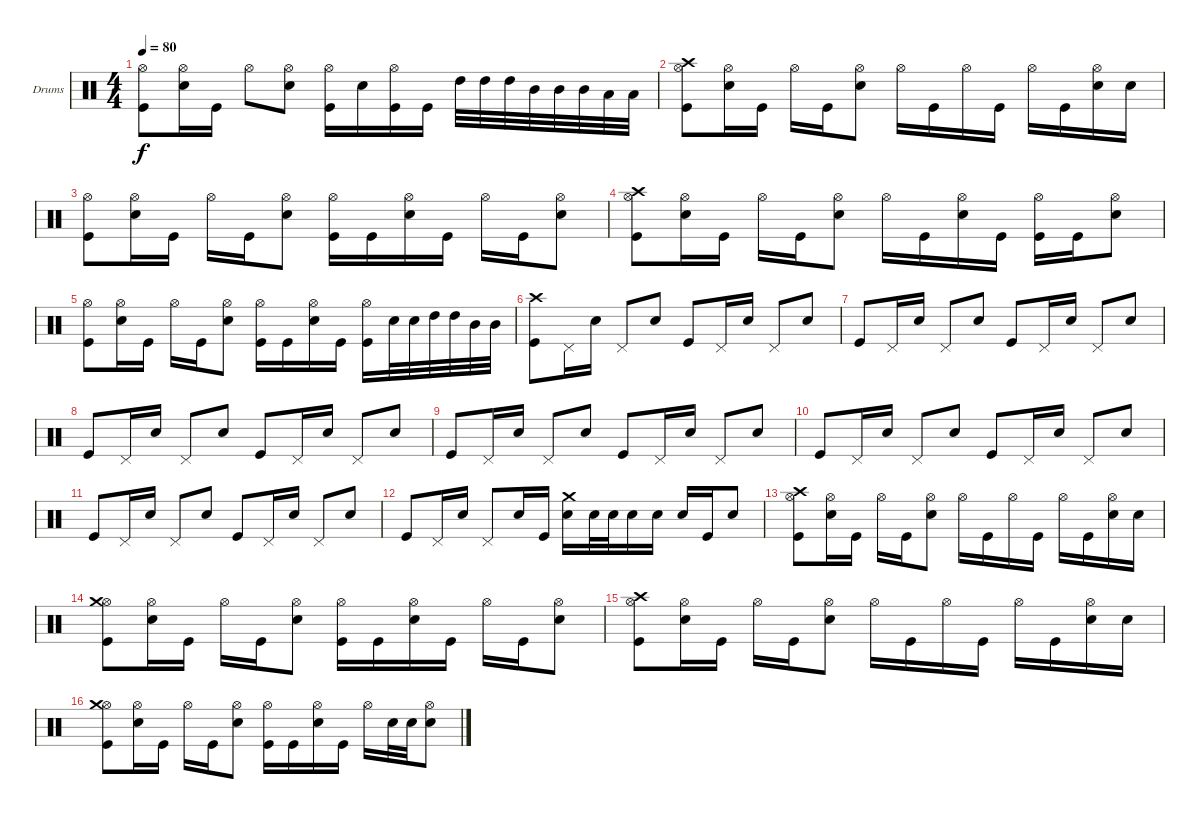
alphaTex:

\defaultSystemsLayout 4
\bracketExtendMode groupsimilarinstruments
\firstSystemTrackNameOrientation horizontal
\otherSystemsTrackNameOrientation horizontal
\track ("Drumkit" "Drums") {instrument percussion}
\staff {score}
\articulation defaults
\ts (4 4)
\tempo 80
\clef neutral
\scale
0.333333
\ks c
("Hi-Hat (open)" "Kick (hit)").8{dy f} ("Hi-Hat (open)" "Snare (hit) 2").16 "Kick (hit)".16 "Hi-Hat (open)".8 ("Hi-Hat (open)" "Snare (hit) 2").8 ("Hi-Hat (open)" "Kick (hit)").16 "Snare (hit) 2".16 ("Hi-Hat (open)" "Kick (hit)").16 "Kick (hit)".16 "High Tom (hit)".32 "High Tom (hit)".32 "High Tom (hit)".32 "Mid Tom (hit)".32 "Mid Tom (hit)".32 "Mid Tom (hit)".32 "Low Tom (hit)".32 "Low Tom (hit)".32 |
\scale
0.333333 ("Hi-Hat (open)" "Kick (hit)" "Crash high (hit)").8 ("Hi-Hat (open)" "Snare (hit) 2").16 "Kick (hit)".16 "Hi-Hat (open)".16 "Kick (hit)".16 ("Snare (hit) 2" "Hi-Hat (open)").8 "Hi-Hat (open)".16 "Kick (hit)".16 "Hi-Hat (open)".16 "Kick (hit)".16 "Hi-Hat (open)".16 "Kick (hit)".16 ("Snare (hit) 2" "Hi-Hat (open)").16 "Snare (hit) 2".16 |
\scale
0.333333 ("Hi-Hat (open)" "Kick (hit)").8 ("Hi-Hat (open)" "Snare (hit) 2").16 "Kick (hit)".16 "Hi-Hat (open)".16 "Kick (hit)".16 ("Snare (hit) 2" "Hi-Hat (open)").8 ("Hi-Hat (open)" "Kick (hit)").16 "Kick (hit)".16 ("Hi-Hat (open)" "Snare (hit) 2").16 "Kick (hit)".16 "Hi-Hat (open)".16 "Kick (hit)".16 ("Snare (hit) 2" "Hi-Hat (open)").8 |
\scale
0.333333 ("Hi-Hat (open)" "Kick (hit)" "Crash high (hit)").8 ("Hi-Hat (open)" "Snare (hit) 2").16 "Kick (hit)".16 "Hi-Hat (open)".16 "Kick (hit)".16 ("Snare (hit) 2" "Hi-Hat (open)").8 "Hi-Hat (open)".16 "Kick (hit)".16 ("Hi-Hat (open)" "Snare (hit) 2").16 "Kick (hit)".16 ("Hi-Hat (open)" "Kick (hit)").16 "Kick (hit)".16 ("Snare (hit) 2" "Hi-Hat (open)").8 |
\scale
0.333333 ("Hi-Hat (open)" "Kick (hit)").8 ("Hi-Hat (open)" "Snare (hit) 2").16 "Kick (hit)".16 "Hi-Hat (open)".16 "Kick (hit)".16 ("Snare (hit) 2" "Hi-Hat (open)").8 ("Hi-Hat (open)" "Kick (hit)").16 "Kick (hit)".16 ("Hi-Hat (open)" "Snare (hit) 2").16 "Kick (hit)".16 ("Hi-Hat (open)" "Kick (hit)").16 "Snare (hit) 2".32 "Snare (hit) 2".32 "High Tom (hit)".32 "High Tom (hit)".32 "Mid Tom (hit)".32 "Mid Tom (hit)".32 |
\scale
0.333333 ("Kick (hit)" "Crash high (hit)").8 "Pedal Hi-Hat (hit)".16 "Snare (hit) 2".16 "Pedal Hi-Hat (hit)".8 "Snare (hit) 2".8 "Kick (hit)".8 "Pedal Hi-Hat (hit)".16 "Snare (hit) 2".16 "Pedal Hi-Hat (hit)".8 "Snare (hit) 2".8 |
\scale
0.333333 "Kick (hit)".8 "Pedal Hi-Hat (hit)".16 "Snare (hit) 2".16 "Pedal Hi-Hat (hit)".8 "Snare (hit) 2".8 "Kick (hit)".8 "Pedal Hi-Hat (hit)".16 "Snare (hit) 2".16 "Pedal Hi-Hat (hit)".8 "Snare (hit) 2".8 |
\scale
0.333333 "Kick (hit)".8 "Pedal Hi-Hat (hit)".16 "Snare (hit) 2".16 "Pedal Hi-Hat (hit)".8 "Snare (hit) 2".8 "Kick (hit)".8 "Pedal Hi-Hat (hit)".16 "Snare (hit) 2".16 "Pedal Hi-Hat (hit)".8 "Snare (hit) 2".8 |
\scale
0.333333 "Kick (hit)".8 "Pedal Hi-Hat (hit)".16 "Snare (hit) 2".16 "Pedal Hi-Hat (hit)".8 "Snare (hit) 2".8 "Kick (hit)".8 "Pedal Hi-Hat (hit)".16 "Snare (hit) 2".16 "Pedal Hi-Hat (hit)".8 "Snare (hit) 2".8 |
\scale
0.333333 "Kick (hit)".8 "Pedal Hi-Hat (hit)".16 "Snare (hit) 2".16 "Pedal Hi-Hat (hit)".8 "Snare (hit) 2".8 "Kick (hit)".8 "Pedal Hi-Hat (hit)".16 "Snare (hit) 2".16 "Pedal Hi-Hat (hit)".8 "Snare (hit) 2".8 |
\scale
0.333333 "Kick (hit)".8 "Pedal Hi-Hat (hit)".16 "Snare (hit) 2".16 "Pedal Hi-Hat (hit)".8 "Snare (hit) 2".8 "Kick (hit)".8 "Pedal Hi-Hat (hit)".16 "Snare (hit) 2".16 "Pedal Hi-Hat (hit)".8 "Snare (hit) 2".8 |
\scale
0.333333 "Kick (hit)".8 "Pedal Hi-Hat (hit)".16 "Snare (hit) 2".16 "Pedal Hi-Hat (hit)".8 "Snare (hit) 2".16 "Kick (hit)".16 ("Snare (hit) 2" "Crash medium (hit)").16 "Snare (hit) 2".32 "Snare (hit) 2".32 "Snare (hit) 2".16 "Snare (hit) 2".16 "Snare (hit) 2".16 "Kick (hit)".16 "Snare (hit) 2".8 |
\scale
0.333333 ("Hi-Hat (open)" "Kick (hit)" "Crash high (hit)").8 ("Hi-Hat (open)" "Snare (hit) 2").16 "Kick (hit)".16 "Hi-Hat (open)".16 "Kick (hit)".16 ("Snare (hit) 2" "Hi-Hat (open)").8 "Hi-Hat (open)".16 "Kick (hit)".16 "Hi-Hat (open)".16 "Kick (hit)".16 "Hi-Hat (open)".16 "Kick (hit)".16 ("Snare (hit) 2" "Hi-Hat (open)").16 "Snare (hit) 2".16 |
\scale
0.333333 ("Hi-Hat (open)" "Kick (hit)" "Crash medium (hit)").8 ("Hi-Hat (open)" "Snare (hit) 2").16 "Kick (hit)".16 "Hi-Hat (open)".16 "Kick (hit)".16 ("Snare (hit) 2" "Hi-Hat (open)").8 ("Hi-Hat (open)" "Kick (hit)").16 "Kick (hit)".16 ("Hi-Hat (open)" "Snare (hit) 2").16 "Kick (hit)".16 "Hi-Hat (open)".16 "Kick (hit)".16 ("Snare (hit) 2" "Hi-Hat (open)").8 |
\scale
0.333333 ("Hi-Hat (open)" "Kick (hit)" "Crash high (hit)").8 ("Hi-Hat (open)" "Snare (hit) 2").16 "Kick (hit)".16 "Hi-Hat (open)".16 "Kick (hit)".16 ("Snare (hit) 2" "Hi-Hat (open)").8 "Hi-Hat (open)".16 "Kick (hit)".16 "Hi-Hat (open)".16 "Kick (hit)".16 "Hi-Hat (open)".16 "Kick (hit)".16 ("Snare (hit) 2" "Hi-Hat (open)").16 "Snare (hit) 2".16 |
\scale
0.333333 ("Hi-Hat (open)" "Kick (hit)" "Crash medium (hit)").8 ("Hi-Hat (open)" "Snare (hit) 2").16 "Kick (hit)".16 "Hi-Hat (open)".16 "Kick (hit)".16 ("Snare (hit) 2" "Hi-Hat (open)").8 ("Hi-Hat (open)" "Kick (hit)").16 "Kick (hit)".16 ("Hi-Hat (open)" "Snare (hit) 2").16 "Kick (hit)".16 "Hi-Hat (open)".16 "Snare (hit) 2".32 "Snare (hit) 2".32 ("Snare (hit) 2" "Hi-Hat (open)").8
